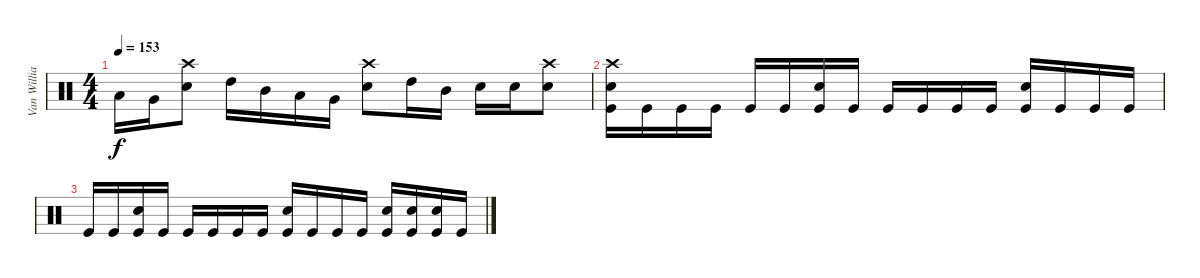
\track ("Van Williams" "Van Willia") {instrument percussion}
\staff {score}
\articulation defaults
\ts (4 4)
\tempo 153
\clef neutral
\ks c "Low Tom (hit)".16{dy f} "Very Low Tom (hit)".16
("Crash high (hit)" "Electric Snare (hit)").8 "High Tom (hit)".16 "Mid Tom (hit)".16 "Low Tom (hit)".16 "Very Low Tom (hit)".16 ("Crash high (hit)" "Electric Snare (hit)").8 "High Tom (hit)".16 "Mid Tom (hit)".16 "Electric Snare (hit)".16 "Electric Snare (hit)".16 ("Crash high (hit)" "Electric Snare (hit)").8 |
("Crash high (hit)" "Electric Snare (hit)" "Kick (hit)").16 "Kick (hit)".16 "Kick (hit)".16 "Kick (hit)".16 "Kick (hit)".16 "Kick (hit)".16 ("Electric Snare (hit)" "Kick (hit)").16 "Kick (hit)".16 "Kick (hit)".16 "Kick (hit)".16 "Kick (hit)".16 "Kick (hit)".16 ("Electric Snare (hit)" "Kick (hit)").16 "Kick (hit)".16 "Kick (hit)".16 "Kick (hit)".16 |
"Kick (hit)".16 "Kick (hit)".16 ("Electric Snare (hit)" "Kick (hit)").16 "Kick (hit)".16 "Kick (hit)".16 "Kick (hit)".16 "Kick (hit)".16 "Kick (hit)".16 ("Electric Snare (hit)" "Kick (hit)").16 "Kick (hit)".16 "Kick (hit)".16 "Kick (hit)".16 ("Electric Snare (hit)" "Kick (hit)").16 ("Electric Snare (hit)" "Kick (hit)").16 ("Electric Snare (hit)" "Kick (hit)").16 "Kick (hit)".16
